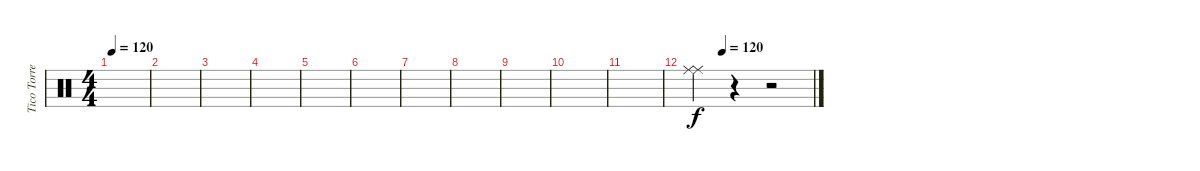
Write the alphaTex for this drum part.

\track ("Tico Torres" "Tico Torre") {instrument percussion}
\staff {score}
\articulation defaults
\ts (4 4)
\tempo 120
\clef neutral
\ks c
|
|
|
|
|
|
|
|
|
|
|
\tempo (120 0.25)
("Ride (middle)" "Ride (middle)").4 r.4 r.2
